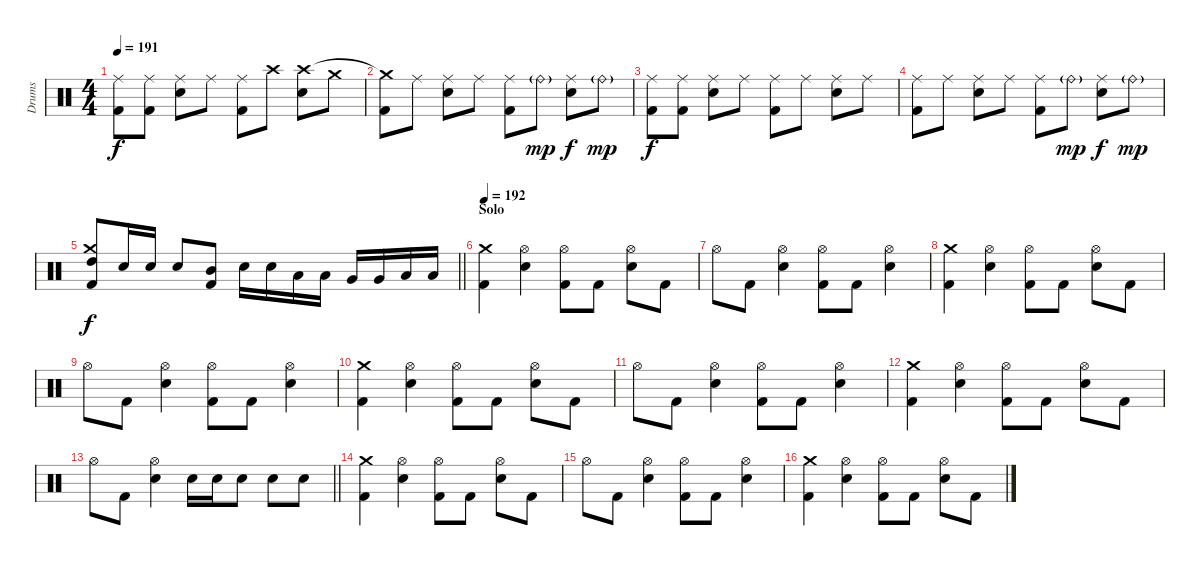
\track ("Drums" "Drums") {instrument percussion}
\staff {score}
\articulation defaults
\ts (4 4)
\tempo 191
\clef neutral
\ks c
("Kick (hit) 2" "Ride (middle)").8{dy f} ("Kick (hit) 2" "Ride (middle)").8 ("Snare (hit) 2" "Ride (middle)").8 "Ride (middle)".8 ("Kick (hit) 2" "Ride (middle)").8 "Crash high (hit)".8 ("Snare (hit) 2" "Crash high (hit)").8 "Crash medium (hit)".8 |
("Kick (hit) 2" "Crash medium (hit)"{t}).8 "Ride (middle)".8 ("Snare (hit) 2" "Ride (middle)").8 "Ride (middle)".8 ("Kick (hit) 2" "Ride (middle)").8 "Ride (bell)"{g}.8{dy mp} ("Snare (hit) 2" "Ride (middle)").8{dy f} "Ride (bell)"{g}.8{dy mp} |
("Kick (hit) 2" "Ride (middle)").8{dy f} ("Kick (hit) 2" "Ride (middle)").8 ("Snare (hit) 2" "Ride (middle)").8 "Ride (middle)".8 ("Kick (hit) 2" "Ride (middle)").8 "Ride (middle)".8 ("Snare (hit) 2" "Ride (middle)").8 "Ride (middle)".8 |
("Kick (hit) 2" "Ride (middle)").8 "Ride (middle)".8 ("Snare (hit) 2" "Ride (middle)").8 "Ride (middle)".8 ("Kick (hit) 2" "Ride (middle)").8 "Ride (bell)"{g}.8{dy mp} ("Snare (hit) 2" "Ride (middle)").8{dy f} "Ride (bell)"{g}.8{dy mp} |
\barLineRight lightlight
("Kick (hit) 2" "High Tom (hit)" "Crash medium (hit)").8{dy f} "Snare (hit) 2".16 "Snare (hit) 2".16 "Snare (hit) 2".8 ("Kick (hit) 2" "Mid Tom (hit)").8 "Snare (hit) 2".16 "Snare (hit) 2".16 "Low Tom (hit)".16 "Low Tom (hit)".16 "Very Low Tom (hit)".16 "Very Low Tom (hit)".16 "Low Floor Tom (hit)".16 "Low Floor Tom (hit)".16 |
\section ("" "Solo")
\tempo 192
("Kick (hit) 2" "Crash medium (hit)").4 ("Snare (hit) 2" "Hi-Hat (open)").4 ("Kick (hit) 2" "Hi-Hat (open)").8 "Kick (hit) 2".8 ("Snare (hit) 2" "Hi-Hat (open)").8 "Kick (hit) 2".8 |
"Hi-Hat (open)".8 "Kick (hit) 2".8 ("Snare (hit) 2" "Hi-Hat (open)").4 ("Kick (hit) 2" "Hi-Hat (open)").8 "Kick (hit) 2".8 ("Snare (hit) 2" "Hi-Hat (open)").4 |
("Kick (hit) 2" "Crash medium (hit)").4 ("Snare (hit) 2" "Hi-Hat (open)").4 ("Kick (hit) 2" "Hi-Hat (open)").8 "Kick (hit) 2".8 ("Snare (hit) 2" "Hi-Hat (open)").8 "Kick (hit) 2".8 |
"Hi-Hat (open)".8 "Kick (hit) 2".8 ("Snare (hit) 2" "Hi-Hat (open)").4 ("Kick (hit) 2" "Hi-Hat (open)").8 "Kick (hit) 2".8 ("Snare (hit) 2" "Hi-Hat (open)").4 |
("Kick (hit) 2" "Crash medium (hit)").4 ("Snare (hit) 2" "Hi-Hat (open)").4 ("Kick (hit) 2" "Hi-Hat (open)").8 "Kick (hit) 2".8 ("Snare (hit) 2" "Hi-Hat (open)").8 "Kick (hit) 2".8 |
"Hi-Hat (open)".8 "Kick (hit) 2".8 ("Snare (hit) 2" "Hi-Hat (open)").4 ("Kick (hit) 2" "Hi-Hat (open)").8 "Kick (hit) 2".8 ("Snare (hit) 2" "Hi-Hat (open)").4 |
("Kick (hit) 2" "Crash medium (hit)").4 ("Snare (hit) 2" "Hi-Hat (open)").4 ("Kick (hit) 2" "Hi-Hat (open)").8 "Kick (hit) 2".8 ("Snare (hit) 2" "Hi-Hat (open)").8 "Kick (hit) 2".8 |
\barLineRight lightlight "Hi-Hat (open)".8 "Kick (hit) 2".8
("Snare (hit) 2" "Hi-Hat (open)").4 "Snare (hit) 2".16 "Snare (hit) 2".16 "Snare (hit) 2".8 "Snare (hit) 2".8 "Snare (hit) 2".8 |
\section ("" "")
("Kick (hit) 2" "Crash medium (hit)").4 ("Snare (hit) 2" "Hi-Hat (open)").4 ("Kick (hit) 2" "Hi-Hat (open)").8 "Kick (hit) 2".8 ("Snare (hit) 2" "Hi-Hat (open)").8 "Kick (hit) 2".8 |
"Hi-Hat (open)".8 "Kick (hit) 2".8 ("Snare (hit) 2" "Hi-Hat (open)").4 ("Kick (hit) 2" "Hi-Hat (open)").8 "Kick (hit) 2".8 ("Snare (hit) 2" "Hi-Hat (open)").4 |
("Kick (hit) 2" "Crash medium (hit)").4 ("Snare (hit) 2" "Hi-Hat (open)").4 ("Kick (hit) 2" "Hi-Hat (open)").8 "Kick (hit) 2".8 ("Snare (hit) 2" "Hi-Hat (open)").8 "Kick (hit) 2".8
